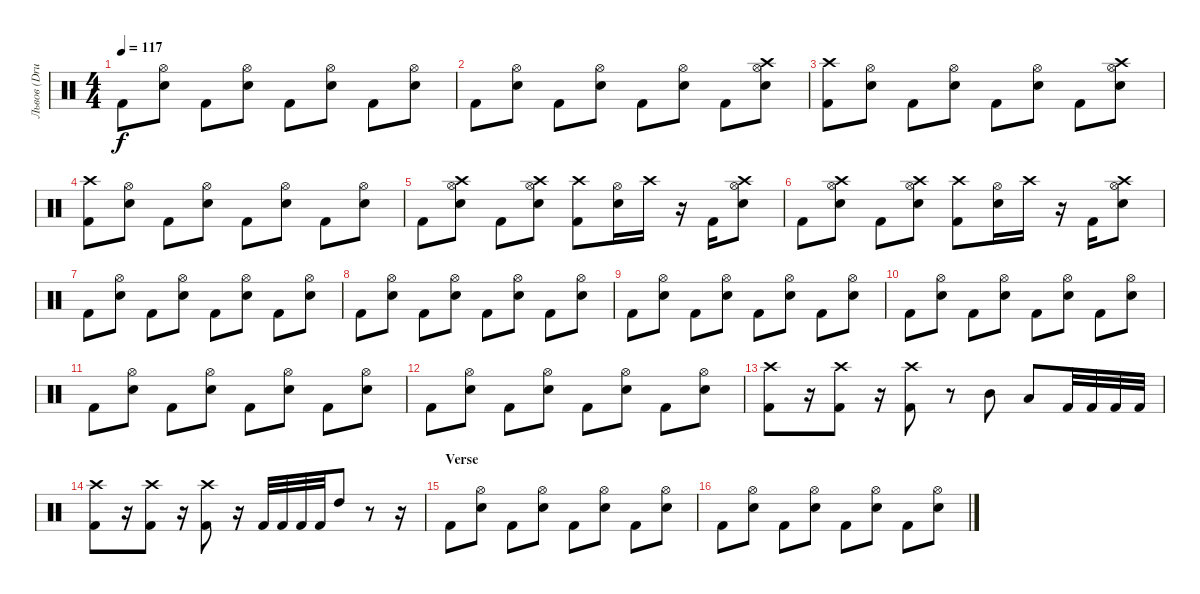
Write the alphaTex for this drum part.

\track ("Львов (Drums)" "Львов (Dru") {instrument percussion}
\staff {score}
\articulation defaults
\ts (4 4)
\tempo 117
\clef neutral
\ks c "Kick (hit) 2".8{dy f}
("Electric Snare (hit)" "Hi-Hat (open)").8 "Kick (hit) 2".8 ("Electric Snare (hit)" "Hi-Hat (open)").8 "Kick (hit) 2".8 ("Electric Snare (hit)" "Hi-Hat (open)").8 "Kick (hit) 2".8 ("Electric Snare (hit)" "Hi-Hat (open)").8 |
"Kick (hit) 2".8 ("Electric Snare (hit)" "Hi-Hat (open)").8 "Kick (hit) 2".8 ("Electric Snare (hit)" "Hi-Hat (open)").8 "Kick (hit) 2".8 ("Electric Snare (hit)" "Hi-Hat (open)").8 "Kick (hit) 2".8 ("Electric Snare (hit)" "Hi-Hat (open)" "Crash high (hit)").8 |
("Kick (hit) 2" "Crash high (hit)").8 ("Electric Snare (hit)" "Hi-Hat (open)").8 "Kick (hit) 2".8 ("Electric Snare (hit)" "Hi-Hat (open)").8 "Kick (hit) 2".8 ("Electric Snare (hit)" "Hi-Hat (open)").8 "Kick (hit) 2".8 ("Electric Snare (hit)" "Hi-Hat (open)" "Crash high (hit)").8 |
("Kick (hit) 2" "Crash high (hit)").8 ("Electric Snare (hit)" "Hi-Hat (open)").8 "Kick (hit) 2".8 ("Electric Snare (hit)" "Hi-Hat (open)").8 "Kick (hit) 2".8 ("Electric Snare (hit)" "Hi-Hat (open)").8 "Kick (hit) 2".8 ("Electric Snare (hit)" "Hi-Hat (open)").8 |
"Kick (hit) 2".8 ("Electric Snare (hit)" "Hi-Hat (open)" "Crash high (hit)").8 "Kick (hit) 2".8 ("Electric Snare (hit)" "Hi-Hat (open)" "Crash high (hit)").8 ("Kick (hit) 2" "Crash high (hit)").8 ("Electric Snare (hit)" "Hi-Hat (open)").16 "Crash high (hit)".16 r.16 "Kick (hit) 2".16 ("Electric Snare (hit)" "Hi-Hat (open)" "Crash high (hit)").8 |
"Kick (hit) 2".8 ("Electric Snare (hit)" "Hi-Hat (open)" "Crash high (hit)").8 "Kick (hit) 2".8 ("Electric Snare (hit)" "Hi-Hat (open)" "Crash high (hit)").8 ("Kick (hit) 2" "Crash high (hit)").8 ("Electric Snare (hit)" "Hi-Hat (open)").16 "Crash high (hit)".16 r.16 "Kick (hit) 2".16 ("Electric Snare (hit)" "Hi-Hat (open)" "Crash high (hit)").8 |
"Kick (hit) 2".8 ("Electric Snare (hit)" "Hi-Hat (open)").8 "Kick (hit) 2".8 ("Electric Snare (hit)" "Hi-Hat (open)").8 "Kick (hit) 2".8 ("Electric Snare (hit)" "Hi-Hat (open)").8 "Kick (hit) 2".8 ("Electric Snare (hit)" "Hi-Hat (open)").8 |
"Kick (hit) 2".8 ("Electric Snare (hit)" "Hi-Hat (open)").8 "Kick (hit) 2".8 ("Electric Snare (hit)" "Hi-Hat (open)").8 "Kick (hit) 2".8 ("Electric Snare (hit)" "Hi-Hat (open)").8 "Kick (hit) 2".8 ("Electric Snare (hit)" "Hi-Hat (open)").8 |
"Kick (hit) 2".8 ("Electric Snare (hit)" "Hi-Hat (open)").8 "Kick (hit) 2".8 ("Electric Snare (hit)" "Hi-Hat (open)").8 "Kick (hit) 2".8 ("Electric Snare (hit)" "Hi-Hat (open)").8 "Kick (hit) 2".8 ("Electric Snare (hit)" "Hi-Hat (open)").8 |
"Kick (hit) 2".8 ("Electric Snare (hit)" "Hi-Hat (open)").8 "Kick (hit) 2".8 ("Electric Snare (hit)" "Hi-Hat (open)").8 "Kick (hit) 2".8 ("Electric Snare (hit)" "Hi-Hat (open)").8 "Kick (hit) 2".8 ("Electric Snare (hit)" "Hi-Hat (open)").8 |
"Kick (hit) 2".8 ("Electric Snare (hit)" "Hi-Hat (open)").8 "Kick (hit) 2".8 ("Electric Snare (hit)" "Hi-Hat (open)").8 "Kick (hit) 2".8 ("Electric Snare (hit)" "Hi-Hat (open)").8 "Kick (hit) 2".8 ("Electric Snare (hit)" "Hi-Hat (open)").8 |
"Kick (hit) 2".8 ("Electric Snare (hit)" "Hi-Hat (open)").8 "Kick (hit) 2".8 ("Electric Snare (hit)" "Hi-Hat (open)").8 "Kick (hit) 2".8 ("Electric Snare (hit)" "Hi-Hat (open)").8 "Kick (hit) 2".8 ("Electric Snare (hit)" "Hi-Hat (open)").8 |
("Kick (hit) 2" "Crash high (hit)").8 r.16 ("Kick (hit) 2" "Crash high (hit)").8 r.16 ("Kick (hit) 2" "Crash high (hit)").8 r.8 "Mid Tom (hit)".8 "Low Tom (hit)".8 "Kick (hit) 2".32 "Kick (hit) 2".32 "Kick (hit) 2".32 "Kick (hit) 2".32 |
("Kick (hit) 2" "Crash high (hit)").8 r.16 ("Kick (hit) 2" "Crash high (hit)").8 r.16 ("Kick (hit) 2" "Crash high (hit)").8 r.16 "Kick (hit) 2".32 "Kick (hit) 2".32 "Kick (hit) 2".32 "Kick (hit) 2".32 "High Tom (hit)".8 r.8 r.16 |
\section ("" "Verse")
"Kick (hit) 2".8 ("Electric Snare (hit)" "Hi-Hat (open)").8 "Kick (hit) 2".8 ("Electric Snare (hit)" "Hi-Hat (open)").8 "Kick (hit) 2".8 ("Electric Snare (hit)" "Hi-Hat (open)").8 "Kick (hit) 2".8 ("Electric Snare (hit)" "Hi-Hat (open)").8 |
"Kick (hit) 2".8 ("Electric Snare (hit)" "Hi-Hat (open)").8 "Kick (hit) 2".8 ("Electric Snare (hit)" "Hi-Hat (open)").8 "Kick (hit) 2".8 ("Electric Snare (hit)" "Hi-Hat (open)").8 "Kick (hit) 2".8 ("Electric Snare (hit)" "Hi-Hat (open)").8
